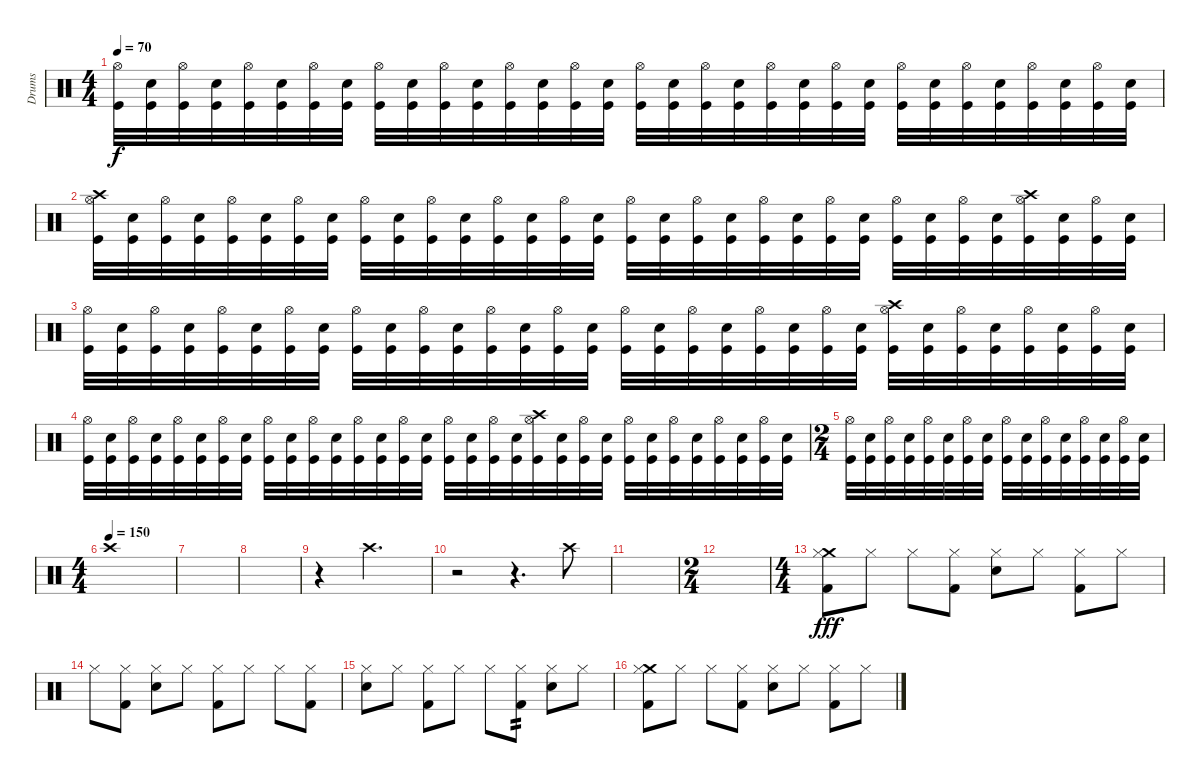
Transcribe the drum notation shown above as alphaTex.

\track ("Drums" "Drums") {instrument percussion}
\staff {score}
\articulation defaults
\ts (4 4)
\tempo 70
\clef neutral
\ks c
("Kick (hit)" "Hi-Hat (open)").32{dy f} ("Kick (hit)" "Electric Snare (hit)").32 ("Kick (hit)" "Hi-Hat (open)").32 ("Kick (hit)" "Electric Snare (hit)").32 ("Kick (hit)" "Hi-Hat (open)").32 ("Kick (hit)" "Electric Snare (hit)").32 ("Kick (hit)" "Hi-Hat (open)").32 ("Kick (hit)" "Electric Snare (hit)").32 ("Kick (hit)" "Hi-Hat (open)").32 ("Kick (hit)" "Electric Snare (hit)").32 ("Kick (hit)" "Hi-Hat (open)").32 ("Kick (hit)" "Electric Snare (hit)").32 ("Kick (hit)" "Hi-Hat (open)").32 ("Kick (hit)" "Electric Snare (hit)").32 ("Kick (hit)" "Hi-Hat (open)").32 ("Kick (hit)" "Electric Snare (hit)").32 ("Kick (hit)" "Hi-Hat (open)").32 ("Kick (hit)" "Electric Snare (hit)").32 ("Kick (hit)" "Hi-Hat (open)").32 ("Kick (hit)" "Electric Snare (hit)").32 ("Kick (hit)" "Hi-Hat (open)").32 ("Kick (hit)" "Electric Snare (hit)").32 ("Kick (hit)" "Hi-Hat (open)").32 ("Kick (hit)" "Electric Snare (hit)").32 ("Kick (hit)" "Hi-Hat (open)").32 ("Kick (hit)" "Electric Snare (hit)").32 ("Kick (hit)" "Hi-Hat (open)").32 ("Kick (hit)" "Electric Snare (hit)").32 ("Kick (hit)" "Hi-Hat (open)").32 ("Kick (hit)" "Electric Snare (hit)").32 ("Kick (hit)" "Hi-Hat (open)").32 ("Kick (hit)" "Electric Snare (hit)").32 |
("Kick (hit)" "Crash high (hit)" "Hi-Hat (open)").32 ("Kick (hit)" "Electric Snare (hit)").32 ("Kick (hit)" "Hi-Hat (open)").32 ("Kick (hit)" "Electric Snare (hit)").32 ("Kick (hit)" "Hi-Hat (open)").32 ("Kick (hit)" "Electric Snare (hit)").32 ("Kick (hit)" "Hi-Hat (open)").32 ("Kick (hit)" "Electric Snare (hit)").32 ("Kick (hit)" "Hi-Hat (open)").32 ("Kick (hit)" "Electric Snare (hit)").32 ("Kick (hit)" "Hi-Hat (open)").32 ("Kick (hit)" "Electric Snare (hit)").32 ("Kick (hit)" "Hi-Hat (open)").32 ("Kick (hit)" "Electric Snare (hit)").32 ("Kick (hit)" "Hi-Hat (open)").32 ("Kick (hit)" "Electric Snare (hit)").32 ("Kick (hit)" "Hi-Hat (open)").32 ("Kick (hit)" "Electric Snare (hit)").32 ("Kick (hit)" "Hi-Hat (open)").32 ("Kick (hit)" "Electric Snare (hit)").32 ("Kick (hit)" "Hi-Hat (open)").32 ("Kick (hit)" "Electric Snare (hit)").32 ("Kick (hit)" "Hi-Hat (open)").32 ("Kick (hit)" "Electric Snare (hit)").32 ("Kick (hit)" "Hi-Hat (open)").32 ("Kick (hit)" "Electric Snare (hit)").32 ("Kick (hit)" "Hi-Hat (open)").32 ("Kick (hit)" "Electric Snare (hit)").32 ("Kick (hit)" "Crash high (hit)" "Hi-Hat (open)").32 ("Kick (hit)" "Electric Snare (hit)").32 ("Kick (hit)" "Hi-Hat (open)").32 ("Kick (hit)" "Electric Snare (hit)").32 |
("Kick (hit)" "Hi-Hat (open)").32 ("Kick (hit)" "Electric Snare (hit)").32 ("Kick (hit)" "Hi-Hat (open)").32 ("Kick (hit)" "Electric Snare (hit)").32 ("Kick (hit)" "Hi-Hat (open)").32 ("Kick (hit)" "Electric Snare (hit)").32 ("Kick (hit)" "Hi-Hat (open)").32 ("Kick (hit)" "Electric Snare (hit)").32 ("Kick (hit)" "Hi-Hat (open)").32 ("Kick (hit)" "Electric Snare (hit)").32 ("Kick (hit)" "Hi-Hat (open)").32 ("Kick (hit)" "Electric Snare (hit)").32 ("Kick (hit)" "Hi-Hat (open)").32 ("Kick (hit)" "Electric Snare (hit)").32 ("Kick (hit)" "Hi-Hat (open)").32 ("Kick (hit)" "Electric Snare (hit)").32 ("Kick (hit)" "Hi-Hat (open)").32 ("Kick (hit)" "Electric Snare (hit)").32 ("Kick (hit)" "Hi-Hat (open)").32 ("Kick (hit)" "Electric Snare (hit)").32 ("Kick (hit)" "Hi-Hat (open)").32 ("Kick (hit)" "Electric Snare (hit)").32 ("Kick (hit)" "Hi-Hat (open)").32 ("Kick (hit)" "Electric Snare (hit)").32 ("Kick (hit)" "Crash high (hit)" "Hi-Hat (open)").32 ("Kick (hit)" "Electric Snare (hit)").32 ("Kick (hit)" "Hi-Hat (open)").32 ("Kick (hit)" "Electric Snare (hit)").32 ("Kick (hit)" "Hi-Hat (open)").32 ("Kick (hit)" "Electric Snare (hit)").32 ("Kick (hit)" "Hi-Hat (open)").32 ("Kick (hit)" "Electric Snare (hit)").32 |
("Kick (hit)" "Hi-Hat (open)").32 ("Kick (hit)" "Electric Snare (hit)").32 ("Kick (hit)" "Hi-Hat (open)").32 ("Kick (hit)" "Electric Snare (hit)").32 ("Kick (hit)" "Hi-Hat (open)").32 ("Kick (hit)" "Electric Snare (hit)").32 ("Kick (hit)" "Hi-Hat (open)").32 ("Kick (hit)" "Electric Snare (hit)").32 ("Kick (hit)" "Hi-Hat (open)").32 ("Kick (hit)" "Electric Snare (hit)").32 ("Kick (hit)" "Hi-Hat (open)").32 ("Kick (hit)" "Electric Snare (hit)").32 ("Kick (hit)" "Hi-Hat (open)").32 ("Kick (hit)" "Electric Snare (hit)").32 ("Kick (hit)" "Hi-Hat (open)").32 ("Kick (hit)" "Electric Snare (hit)").32 ("Kick (hit)" "Hi-Hat (open)").32 ("Kick (hit)" "Electric Snare (hit)").32 ("Kick (hit)" "Hi-Hat (open)").32 ("Kick (hit)" "Electric Snare (hit)").32 ("Kick (hit)" "Crash high (hit)" "Hi-Hat (open)").32 ("Kick (hit)" "Electric Snare (hit)").32 ("Kick (hit)" "Hi-Hat (open)").32 ("Kick (hit)" "Electric Snare (hit)").32 ("Kick (hit)" "Hi-Hat (open)").32 ("Kick (hit)" "Electric Snare (hit)").32 ("Kick (hit)" "Hi-Hat (open)").32 ("Kick (hit)" "Electric Snare (hit)").32 ("Kick (hit)" "Hi-Hat (open)").32 ("Kick (hit)" "Electric Snare (hit)").32 ("Kick (hit)" "Hi-Hat (open)").32 ("Kick (hit)" "Electric Snare (hit)").32 |
\ts (2 4)
("Kick (hit)" "Hi-Hat (open)").32 ("Kick (hit)" "Electric Snare (hit)").32 ("Kick (hit)" "Hi-Hat (open)").32 ("Kick (hit)" "Electric Snare (hit)").32 ("Kick (hit)" "Hi-Hat (open)").32 ("Kick (hit)" "Electric Snare (hit)").32 ("Kick (hit)" "Hi-Hat (open)").32 ("Kick (hit)" "Electric Snare (hit)").32 ("Kick (hit)" "Hi-Hat (open)").32 ("Kick (hit)" "Electric Snare (hit)").32 ("Kick (hit)" "Hi-Hat (open)").32 ("Kick (hit)" "Electric Snare (hit)").32 ("Kick (hit)" "Hi-Hat (open)").32 ("Kick (hit)" "Electric Snare (hit)").32 ("Kick (hit)" "Hi-Hat (open)").32 ("Kick (hit)" "Electric Snare (hit)").32 |
\ts (4 4)
\tempo (150)
"Crash high (hit)".1 |
|
|
r.4 "Crash high (hit)".2{d} |
r.2 r.4{d} "Crash high (hit)".8 |
|
\ts (2 4)
|
\ts (4 4)
("Crash medium (hit)" "Hi-Hat (closed)" "Kick (hit) 2").8{dy fff} "Hi-Hat (closed)".8 "Hi-Hat (closed)".8 ("Hi-Hat (closed)" "Kick (hit) 2").8 ("Hi-Hat (closed)" "Electric Snare (hit)").8 "Hi-Hat (closed)".8 ("Hi-Hat (closed)" "Kick (hit) 2").8 "Hi-Hat (closed)".8 |
"Hi-Hat (closed)".8 ("Hi-Hat (closed)" "Kick (hit) 2").8 ("Hi-Hat (closed)" "Electric Snare (hit)").8 "Hi-Hat (closed)".8 ("Hi-Hat (closed)" "Kick (hit) 2").8 "Hi-Hat (closed)".8 "Hi-Hat (closed)".8 ("Hi-Hat (closed)" "Kick (hit) 2").8 |
("Hi-Hat (closed)" "Electric Snare (hit)").8 "Hi-Hat (closed)".8 ("Hi-Hat (closed)" "Kick (hit) 2").8 "Hi-Hat (closed)".8 "Hi-Hat (closed)".8 ("Hi-Hat (closed)" "Kick (hit) 2").8{tp 2} ("Hi-Hat (closed)" "Electric Snare (hit)").8 "Hi-Hat (closed)".8 |
("Crash medium (hit)" "Hi-Hat (closed)" "Kick (hit) 2").8 "Hi-Hat (closed)".8 "Hi-Hat (closed)".8 ("Hi-Hat (closed)" "Kick (hit) 2").8 ("Hi-Hat (closed)" "Electric Snare (hit)").8 "Hi-Hat (closed)".8 ("Hi-Hat (closed)" "Kick (hit) 2").8 "Hi-Hat (closed)".8
